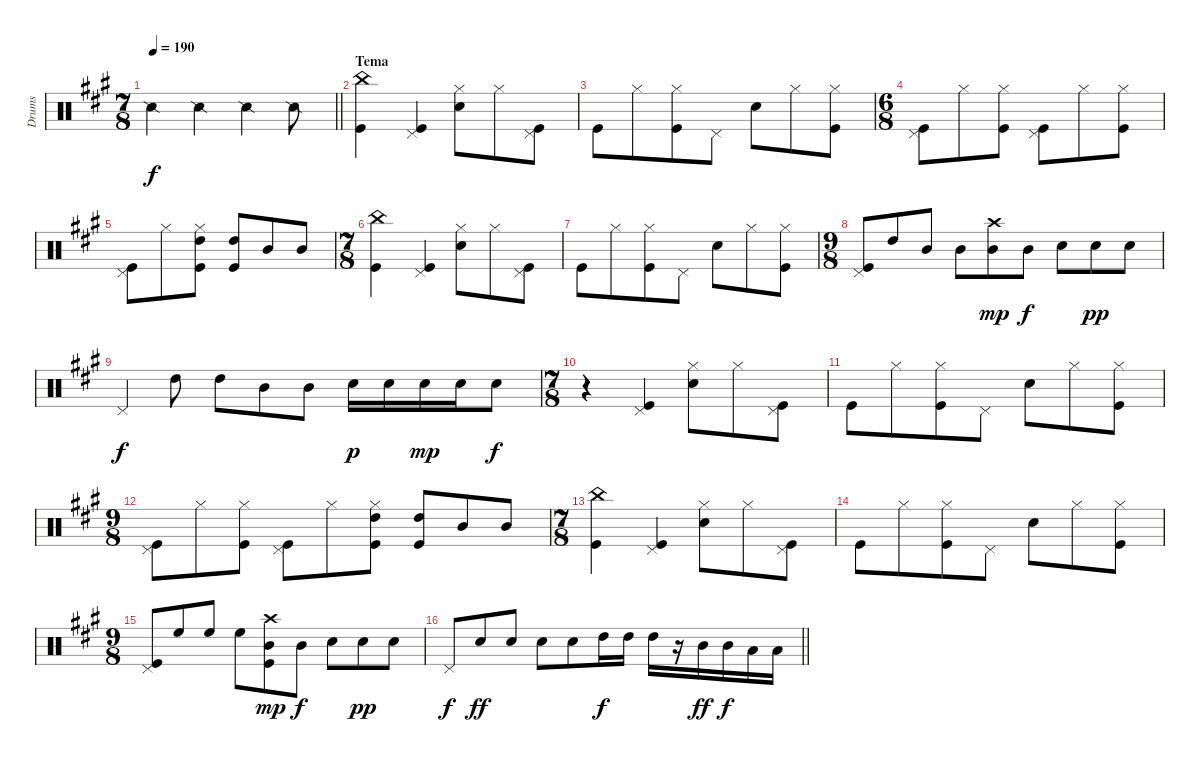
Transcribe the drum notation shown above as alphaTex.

\track ("Drums" "Drums") {instrument percussion}
\staff {score}
\articulation defaults
\ts (7 8)
\section ("" "")
\tempo 190
\clef neutral
\barLineRight lightlight
\ks f#minor "Snare (side stick) 2".4{dy f} "Snare (side stick) 2".4 "Snare (side stick) 2".4 "Snare (side stick) 2".8
|
\section ("" "Tema")
("China (hit)" "Kick (hit)").4 ("Pedal Hi-Hat (hit)" "Kick (hit)").4 ("Hi-Hat (closed)" "Snare (hit) 2").8 "Hi-Hat (closed)".8 ("Pedal Hi-Hat (hit)" "Kick (hit)").8 |
"Kick (hit)".8 "Hi-Hat (closed)".8 ("Hi-Hat (closed)" "Kick (hit)").8 "Pedal Hi-Hat (hit)".8 "Snare (hit) 2".8 "Hi-Hat (closed)".8 ("Hi-Hat (closed)" "Kick (hit)").8 |
\ts (6 8)
("Pedal Hi-Hat (hit)" "Kick (hit)").8 "Hi-Hat (closed)".8 ("Hi-Hat (closed)" "Kick (hit)").8 ("Pedal Hi-Hat (hit)" "Kick (hit)").8 "Hi-Hat (closed)".8 ("Hi-Hat (closed)" "Kick (hit)").8 |
("Pedal Hi-Hat (hit)" "Kick (hit)").8 "Hi-Hat (closed)".8 ("Hi-Hat (closed)" "High Tom (hit)" "Kick (hit)").8 ("High Tom (hit)" "Kick (hit)").8 "Mid Tom (hit)".8 "Mid Tom (hit)".8 |
\ts (7 8)
("China (hit)" "Kick (hit)").4 ("Pedal Hi-Hat (hit)" "Kick (hit)").4 ("Hi-Hat (closed)" "Snare (hit) 2").8 "Hi-Hat (closed)".8 ("Pedal Hi-Hat (hit)" "Kick (hit)").8 |
"Kick (hit)".8 "Hi-Hat (closed)".8 ("Hi-Hat (closed)" "Kick (hit)").8 "Pedal Hi-Hat (hit)".8 "Snare (hit) 2".8 "Hi-Hat (closed)".8 ("Hi-Hat (closed)" "Kick (hit)").8 |
\ts (9 8)
("Pedal Hi-Hat (hit)" "Kick (hit)").8 "High Tom (hit)".8 "Mid Tom (hit)".8 "Mid Tom (hit)".8 ("Crash high (hit)" "Mid Tom (hit)").8{dy mp} "Mid Tom (hit)".8{dy f} "Snare (hit) 2".8 "Snare (hit) 2".8{dy pp} "Snare (hit) 2".8 |
"Pedal Hi-Hat (hit)".4{dy f} "High Tom (hit)".8 "High Tom (hit)".8 "Mid Tom (hit)".8 "Mid Tom (hit)".8 "Snare (hit) 2".16{dy p} "Snare (hit) 2".16 "Snare (hit) 2".16{dy mp} "Snare (hit) 2".16 "Snare (hit) 2".8{dy f} |
\ts (7 8)
r.4 ("Pedal Hi-Hat (hit)" "Kick (hit)").4 ("Hi-Hat (closed)" "Snare (hit) 2").8 "Hi-Hat (closed)".8 ("Pedal Hi-Hat (hit)" "Kick (hit)").8 |
"Kick (hit)".8 "Hi-Hat (closed)".8 ("Hi-Hat (closed)" "Kick (hit)").8 "Pedal Hi-Hat (hit)".8 "Snare (hit) 2".8 "Hi-Hat (closed)".8 ("Hi-Hat (closed)" "Kick (hit)").8 |
\ts (9 8)
("Pedal Hi-Hat (hit)" "Kick (hit)").8 "Hi-Hat (closed)".8 ("Hi-Hat (closed)" "Kick (hit)").8 ("Pedal Hi-Hat (hit)" "Kick (hit)").8 "Hi-Hat (closed)".8 ("Hi-Hat (closed)" "High Tom (hit)" "Kick (hit)").8 ("High Tom (hit)" "Kick (hit)").8 "Mid Tom (hit)".8 "Mid Tom (hit)".8 |
\ts (7 8)
("China (hit)" "Kick (hit)").4 ("Pedal Hi-Hat (hit)" "Kick (hit)").4 ("Hi-Hat (closed)" "Snare (hit) 2").8 "Hi-Hat (closed)".8 ("Pedal Hi-Hat (hit)" "Kick (hit)").8 |
"Kick (hit)".8 "Hi-Hat (closed)".8 ("Hi-Hat (closed)" "Kick (hit)").8 "Pedal Hi-Hat (hit)".8 "Snare (hit) 2".8 "Hi-Hat (closed)".8 ("Hi-Hat (closed)" "Kick (hit)").8 |
\ts (9 8)
("Pedal Hi-Hat (hit)" "Kick (hit)").8 "High Floor Tom (hit)".8 "High Floor Tom (hit)".8 "High Floor Tom (hit)".8 ("Crash high (hit)" "Mid Tom (hit)" "Kick (hit)").8{dy mp} "Mid Tom (hit)".8{dy f} "Snare (hit) 2".8 "Snare (hit) 2".8{dy pp} "Snare (hit) 2".8 |
\barLineRight lightlight "Pedal Hi-Hat (hit)".8{dy f} "Snare (hit) 2".8{dy ff} "Snare (hit) 2".8 "Snare (hit) 2".8 "Snare (hit) 2".8 "High Tom (hit)".16{dy f} "High Tom (hit)".16 "High Tom (hit)".16
r.16 "Mid Tom (hit)".16{dy ff} "Mid Tom (hit)".16{dy f} "Low Tom (hit)".16 "Low Tom (hit)".16
